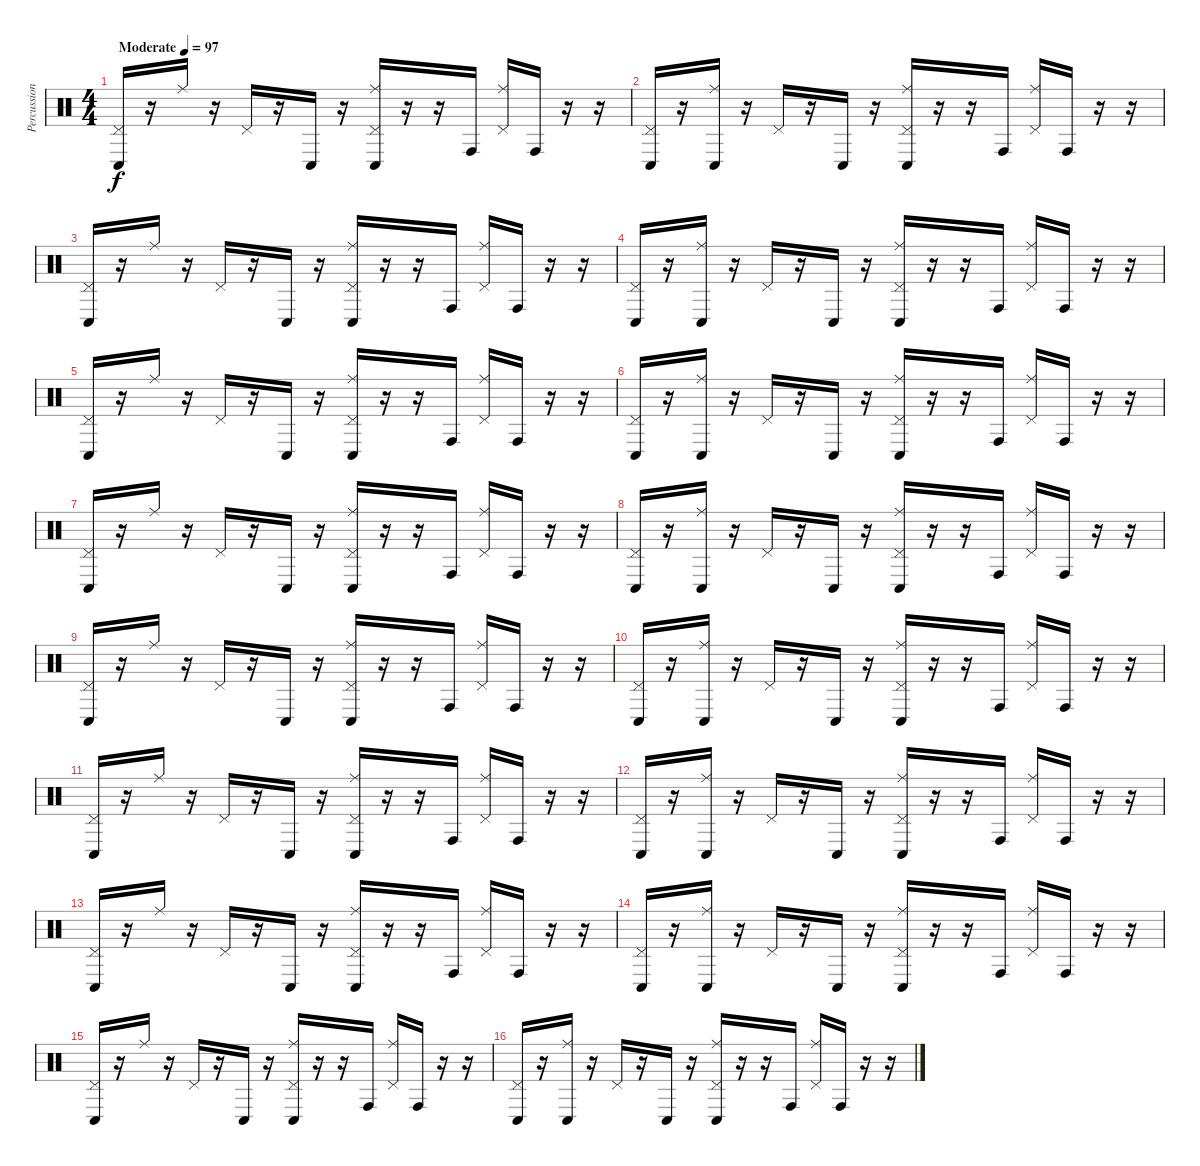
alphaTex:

\track ("Percussion" "Percussion") {instrument percussion}
\staff {score}
\articulation defaults
\ts (4 4)
\tempo (97 "Moderate")
\clef neutral
\ks c
("Pedal Hi-Hat (hit)" "Conga low (hit)").16{dy f} r.16 "Ride (middle)".16 r.16 "Pedal Hi-Hat (hit)".16 r.16 "Conga low (hit)".16 r.16 ("Ride (middle)" "Pedal Hi-Hat (hit)" "Conga low (hit)").16 r.16 r.16 "Conga high (hit)".16 ("Ride (middle)" "Pedal Hi-Hat (hit)").16 "Conga high (hit)".16 r.16 r.16 |
("Pedal Hi-Hat (hit)" "Conga low (hit)").16 r.16 ("Ride (middle)" "Conga low (hit)").16 r.16 "Pedal Hi-Hat (hit)".16 r.16 "Conga low (hit)".16 r.16 ("Ride (middle)" "Pedal Hi-Hat (hit)" "Conga low (hit)").16 r.16 r.16 "Conga high (hit)".16 ("Ride (middle)" "Pedal Hi-Hat (hit)").16 "Conga high (hit)".16 r.16 r.16 |
("Pedal Hi-Hat (hit)" "Conga low (hit)").16 r.16 "Ride (middle)".16 r.16 "Pedal Hi-Hat (hit)".16 r.16 "Conga low (hit)".16 r.16 ("Ride (middle)" "Pedal Hi-Hat (hit)" "Conga low (hit)").16 r.16 r.16 "Conga high (hit)".16 ("Ride (middle)" "Pedal Hi-Hat (hit)").16 "Conga high (hit)".16 r.16 r.16 |
("Pedal Hi-Hat (hit)" "Conga low (hit)").16 r.16 ("Ride (middle)" "Conga low (hit)").16 r.16 "Pedal Hi-Hat (hit)".16 r.16 "Conga low (hit)".16 r.16 ("Ride (middle)" "Pedal Hi-Hat (hit)" "Conga low (hit)").16 r.16 r.16 "Conga high (hit)".16 ("Ride (middle)" "Pedal Hi-Hat (hit)").16 "Conga high (hit)".16 r.16 r.16 |
("Pedal Hi-Hat (hit)" "Conga low (hit)").16 r.16 "Ride (middle)".16 r.16 "Pedal Hi-Hat (hit)".16 r.16 "Conga low (hit)".16 r.16 ("Ride (middle)" "Pedal Hi-Hat (hit)" "Conga low (hit)").16 r.16 r.16 "Conga high (hit)".16 ("Ride (middle)" "Pedal Hi-Hat (hit)").16 "Conga high (hit)".16 r.16 r.16 |
("Pedal Hi-Hat (hit)" "Conga low (hit)").16 r.16 ("Ride (middle)" "Conga low (hit)").16 r.16 "Pedal Hi-Hat (hit)".16 r.16 "Conga low (hit)".16 r.16 ("Ride (middle)" "Pedal Hi-Hat (hit)" "Conga low (hit)").16 r.16 r.16 "Conga high (hit)".16 ("Ride (middle)" "Pedal Hi-Hat (hit)").16 "Conga high (hit)".16 r.16 r.16 |
("Pedal Hi-Hat (hit)" "Conga low (hit)").16 r.16 "Ride (middle)".16 r.16 "Pedal Hi-Hat (hit)".16 r.16 "Conga low (hit)".16 r.16 ("Ride (middle)" "Pedal Hi-Hat (hit)" "Conga low (hit)").16 r.16 r.16 "Conga high (hit)".16 ("Ride (middle)" "Pedal Hi-Hat (hit)").16 "Conga high (hit)".16 r.16 r.16 |
("Pedal Hi-Hat (hit)" "Conga low (hit)").16 r.16 ("Ride (middle)" "Conga low (hit)").16 r.16 "Pedal Hi-Hat (hit)".16 r.16 "Conga low (hit)".16 r.16 ("Ride (middle)" "Pedal Hi-Hat (hit)" "Conga low (hit)").16 r.16 r.16 "Conga high (hit)".16 ("Ride (middle)" "Pedal Hi-Hat (hit)").16 "Conga high (hit)".16 r.16 r.16 |
("Pedal Hi-Hat (hit)" "Conga low (hit)").16 r.16 "Ride (middle)".16 r.16 "Pedal Hi-Hat (hit)".16 r.16 "Conga low (hit)".16 r.16 ("Ride (middle)" "Pedal Hi-Hat (hit)" "Conga low (hit)").16 r.16 r.16 "Conga high (hit)".16 ("Ride (middle)" "Pedal Hi-Hat (hit)").16 "Conga high (hit)".16 r.16 r.16 |
("Pedal Hi-Hat (hit)" "Conga low (hit)").16 r.16 ("Ride (middle)" "Conga low (hit)").16 r.16 "Pedal Hi-Hat (hit)".16 r.16 "Conga low (hit)".16 r.16 ("Ride (middle)" "Pedal Hi-Hat (hit)" "Conga low (hit)").16 r.16 r.16 "Conga high (hit)".16 ("Ride (middle)" "Pedal Hi-Hat (hit)").16 "Conga high (hit)".16 r.16 r.16 |
("Pedal Hi-Hat (hit)" "Conga low (hit)").16 r.16 "Ride (middle)".16 r.16 "Pedal Hi-Hat (hit)".16 r.16 "Conga low (hit)".16 r.16 ("Ride (middle)" "Pedal Hi-Hat (hit)" "Conga low (hit)").16 r.16 r.16 "Conga high (hit)".16 ("Ride (middle)" "Pedal Hi-Hat (hit)").16 "Conga high (hit)".16 r.16 r.16 |
("Pedal Hi-Hat (hit)" "Conga low (hit)").16 r.16 ("Ride (middle)" "Conga low (hit)").16 r.16 "Pedal Hi-Hat (hit)".16 r.16 "Conga low (hit)".16 r.16 ("Ride (middle)" "Pedal Hi-Hat (hit)" "Conga low (hit)").16 r.16 r.16 "Conga high (hit)".16 ("Ride (middle)" "Pedal Hi-Hat (hit)").16 "Conga high (hit)".16 r.16 r.16 |
("Pedal Hi-Hat (hit)" "Conga low (hit)").16 r.16 "Ride (middle)".16 r.16 "Pedal Hi-Hat (hit)".16 r.16 "Conga low (hit)".16 r.16 ("Ride (middle)" "Pedal Hi-Hat (hit)" "Conga low (hit)").16 r.16 r.16 "Conga high (hit)".16 ("Ride (middle)" "Pedal Hi-Hat (hit)").16 "Conga high (hit)".16 r.16 r.16 |
("Pedal Hi-Hat (hit)" "Conga low (hit)").16 r.16 ("Ride (middle)" "Conga low (hit)").16 r.16 "Pedal Hi-Hat (hit)".16 r.16 "Conga low (hit)".16 r.16 ("Ride (middle)" "Pedal Hi-Hat (hit)" "Conga low (hit)").16 r.16 r.16 "Conga high (hit)".16 ("Ride (middle)" "Pedal Hi-Hat (hit)").16 "Conga high (hit)".16 r.16 r.16 |
("Pedal Hi-Hat (hit)" "Conga low (hit)").16 r.16 "Ride (middle)".16 r.16 "Pedal Hi-Hat (hit)".16 r.16 "Conga low (hit)".16 r.16 ("Ride (middle)" "Pedal Hi-Hat (hit)" "Conga low (hit)").16 r.16 r.16 "Conga high (hit)".16 ("Ride (middle)" "Pedal Hi-Hat (hit)").16 "Conga high (hit)".16 r.16 r.16 |
("Pedal Hi-Hat (hit)" "Conga low (hit)").16 r.16 ("Ride (middle)" "Conga low (hit)").16 r.16 "Pedal Hi-Hat (hit)".16 r.16 "Conga low (hit)".16 r.16 ("Ride (middle)" "Pedal Hi-Hat (hit)" "Conga low (hit)").16 r.16 r.16 "Conga high (hit)".16 ("Ride (middle)" "Pedal Hi-Hat (hit)").16 "Conga high (hit)".16 r.16 r.16
